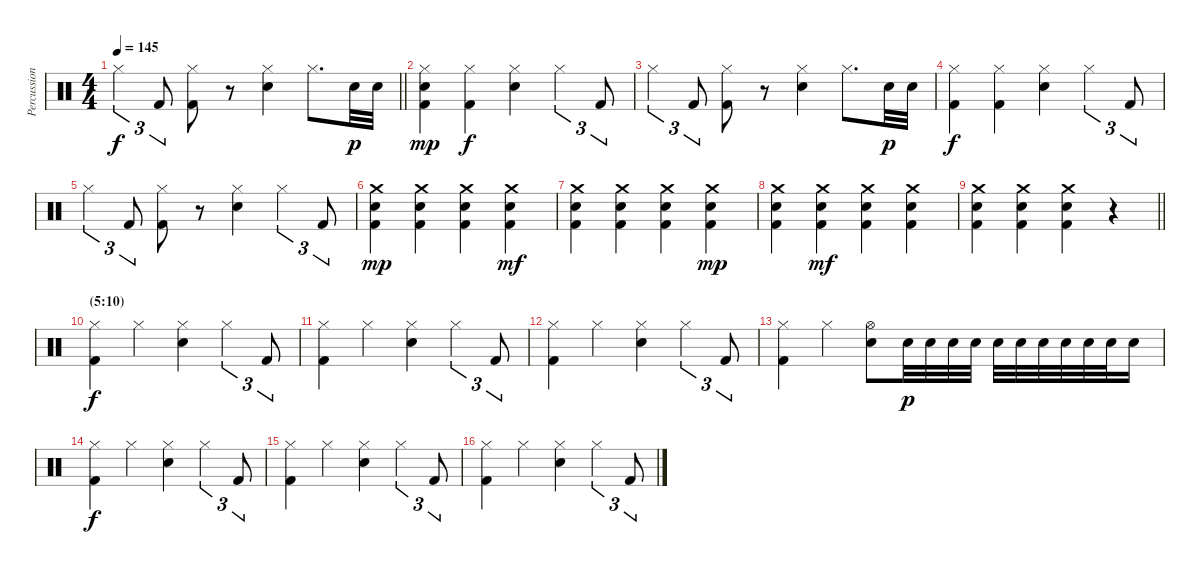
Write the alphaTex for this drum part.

\track ("Percussion" "Percussion") {instrument percussion}
\staff {score}
\articulation defaults
\ts (4 4)
\tempo 145
\clef neutral
\barLineRight lightlight
\ks c "Hi-Hat (closed)".4{tu (3 2) dy f} "Kick (hit) 2".8{tu (3 2)}
("Hi-Hat (closed)" "Kick (hit) 2").8 r.8 ("Hi-Hat (closed)" "Electric Snare (hit)").4 "Hi-Hat (closed)".8{d} "Electric Snare (hit)".32{dy p} "Electric Snare (hit)".32 |
("Hi-Hat (closed)" "Electric Snare (hit)" "Kick (hit) 2").4{dy mp} ("Hi-Hat (closed)" "Kick (hit) 2").4{dy f} ("Hi-Hat (closed)" "Electric Snare (hit)").4 "Hi-Hat (closed)".4{tu (3 2)} "Kick (hit) 2".8{tu (3 2)} |
"Hi-Hat (closed)".4{tu (3 2)} "Kick (hit) 2".8{tu (3 2)} ("Hi-Hat (closed)" "Kick (hit) 2").8 r.8 ("Hi-Hat (closed)" "Electric Snare (hit)").4 "Hi-Hat (closed)".8{d} "Electric Snare (hit)".32{dy p} "Electric Snare (hit)".32 |
("Hi-Hat (closed)" "Kick (hit) 2").4{dy f} ("Hi-Hat (closed)" "Kick (hit) 2").4 ("Hi-Hat (closed)" "Electric Snare (hit)").4 "Hi-Hat (closed)".4{tu (3 2)} "Kick (hit) 2".8{tu (3 2)} |
"Hi-Hat (closed)".4{tu (3 2)} "Kick (hit) 2".8{tu (3 2)} ("Hi-Hat (closed)" "Kick (hit) 2").8 r.8 ("Hi-Hat (closed)" "Electric Snare (hit)").4 "Hi-Hat (closed)".4{tu (3 2)} "Kick (hit) 2".8{tu (3 2)} |
("Crash medium (hit)" "Electric Snare (hit)" "Kick (hit) 2").4{dy mp} ("Crash medium (hit)" "Electric Snare (hit)" "Kick (hit) 2").4 ("Crash medium (hit)" "Electric Snare (hit)" "Kick (hit) 2").4 ("Crash medium (hit)" "Electric Snare (hit)" "Kick (hit) 2").4{dy mf} |
("Crash medium (hit)" "Electric Snare (hit)" "Kick (hit) 2").4 ("Crash medium (hit)" "Electric Snare (hit)" "Kick (hit) 2").4 ("Crash medium (hit)" "Electric Snare (hit)" "Kick (hit) 2").4 ("Crash medium (hit)" "Electric Snare (hit)" "Kick (hit) 2").4{dy mp} |
("Crash medium (hit)" "Electric Snare (hit)" "Kick (hit) 2").4 ("Crash medium (hit)" "Electric Snare (hit)" "Kick (hit) 2").4{dy mf} ("Crash medium (hit)" "Electric Snare (hit)" "Kick (hit) 2").4 ("Crash medium (hit)" "Electric Snare (hit)" "Kick (hit) 2").4 |
\barLineRight lightlight
("Crash medium (hit)" "Electric Snare (hit)" "Kick (hit) 2").4 ("Crash medium (hit)" "Electric Snare (hit)" "Kick (hit) 2").4 ("Crash medium (hit)" "Electric Snare (hit)" "Kick (hit) 2").4 r.4 |
\section ("" "(5:10)")
("Hi-Hat (closed)" "Kick (hit) 2").4{dy f} "Hi-Hat (closed)".4 ("Hi-Hat (closed)" "Electric Snare (hit)").4 "Hi-Hat (closed)".4{tu (3 2)} "Kick (hit) 2".8{tu (3 2)} |
("Hi-Hat (closed)" "Kick (hit) 2").4 "Hi-Hat (closed)".4 ("Hi-Hat (closed)" "Electric Snare (hit)").4 "Hi-Hat (closed)".4{tu (3 2)} "Kick (hit) 2".8{tu (3 2)} |
("Hi-Hat (closed)" "Kick (hit) 2").4 "Hi-Hat (closed)".4 ("Hi-Hat (closed)" "Electric Snare (hit)").4 "Hi-Hat (closed)".4{tu (3 2)} "Kick (hit) 2".8{tu (3 2)} |
("Hi-Hat (closed)" "Kick (hit) 2").4 "Hi-Hat (closed)".4 ("Hi-Hat (open)" "Electric Snare (hit)").8 "Electric Snare (hit)".32{dy p} "Electric Snare (hit)".32 "Electric Snare (hit)".32 "Electric Snare (hit)".32 "Electric Snare (hit)".32 "Electric Snare (hit)".32 "Electric Snare (hit)".32 "Electric Snare (hit)".32 "Electric Snare (hit)".32 "Electric Snare (hit)".32 "Electric Snare (hit)".16 |
("Hi-Hat (closed)" "Kick (hit) 2").4{dy f} "Hi-Hat (closed)".4 ("Hi-Hat (closed)" "Electric Snare (hit)").4 "Hi-Hat (closed)".4{tu (3 2)} "Kick (hit) 2".8{tu (3 2)} |
("Hi-Hat (closed)" "Kick (hit) 2").4 "Hi-Hat (closed)".4 ("Hi-Hat (closed)" "Electric Snare (hit)").4 "Hi-Hat (closed)".4{tu (3 2)} "Kick (hit) 2".8{tu (3 2)} |
("Hi-Hat (closed)" "Kick (hit) 2").4 "Hi-Hat (closed)".4 ("Hi-Hat (closed)" "Electric Snare (hit)").4 "Hi-Hat (closed)".4{tu (3 2)} "Kick (hit) 2".8{tu (3 2)}
